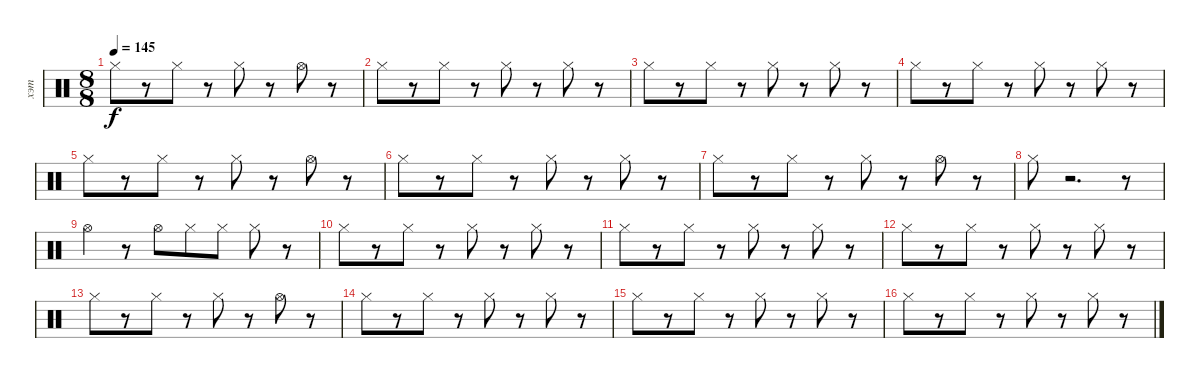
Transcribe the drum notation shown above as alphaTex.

\track ("хэт" "хэт") {instrument percussion}
\staff {score}
\articulation defaults
\ts (8 8)
\tempo 145
\clef neutral
\ks c "Hi-Hat (closed)".8{dy f}
r.8 "Hi-Hat (closed)".8 r.8 "Hi-Hat (closed)".8 r.8 "Hi-Hat (open)".8 r.8 |
"Hi-Hat (closed)".8 r.8 "Hi-Hat (closed)".8 r.8 "Hi-Hat (closed)".8 r.8 "Hi-Hat (closed)".8 r.8 |
"Hi-Hat (closed)".8 r.8 "Hi-Hat (closed)".8 r.8 "Hi-Hat (closed)".8 r.8 "Hi-Hat (closed)".8 r.8 |
"Hi-Hat (closed)".8 r.8 "Hi-Hat (closed)".8 r.8 "Hi-Hat (closed)".8 r.8 "Hi-Hat (closed)".8 r.8 |
"Hi-Hat (closed)".8 r.8 "Hi-Hat (closed)".8 r.8 "Hi-Hat (closed)".8 r.8 "Hi-Hat (open)".8 r.8 |
"Hi-Hat (closed)".8 r.8 "Hi-Hat (closed)".8 r.8 "Hi-Hat (closed)".8 r.8 "Hi-Hat (closed)".8 r.8 |
"Hi-Hat (closed)".8 r.8 "Hi-Hat (closed)".8 r.8 "Hi-Hat (closed)".8 r.8 "Hi-Hat (open)".8 r.8 |
"Hi-Hat (closed)".8 r.2{d} r.8 |
"Hi-Hat (open)".4 r.8 "Hi-Hat (open)".8 "Hi-Hat (closed)".8 "Hi-Hat (closed)".8 "Hi-Hat (closed)".8 r.8 |
"Hi-Hat (closed)".8 r.8 "Hi-Hat (closed)".8 r.8 "Hi-Hat (closed)".8 r.8 "Hi-Hat (closed)".8 r.8 |
"Hi-Hat (closed)".8 r.8 "Hi-Hat (closed)".8 r.8 "Hi-Hat (closed)".8 r.8 "Hi-Hat (closed)".8 r.8 |
"Hi-Hat (closed)".8 r.8 "Hi-Hat (closed)".8 r.8 "Hi-Hat (closed)".8 r.8 "Hi-Hat (closed)".8 r.8 |
"Hi-Hat (closed)".8 r.8 "Hi-Hat (closed)".8 r.8 "Hi-Hat (closed)".8 r.8 "Hi-Hat (open)".8 r.8 |
"Hi-Hat (closed)".8 r.8 "Hi-Hat (closed)".8 r.8 "Hi-Hat (closed)".8 r.8 "Hi-Hat (closed)".8 r.8 |
"Hi-Hat (closed)".8 r.8 "Hi-Hat (closed)".8 r.8 "Hi-Hat (closed)".8 r.8 "Hi-Hat (closed)".8 r.8 |
"Hi-Hat (closed)".8 r.8 "Hi-Hat (closed)".8 r.8 "Hi-Hat (closed)".8 r.8 "Hi-Hat (closed)".8 r.8
